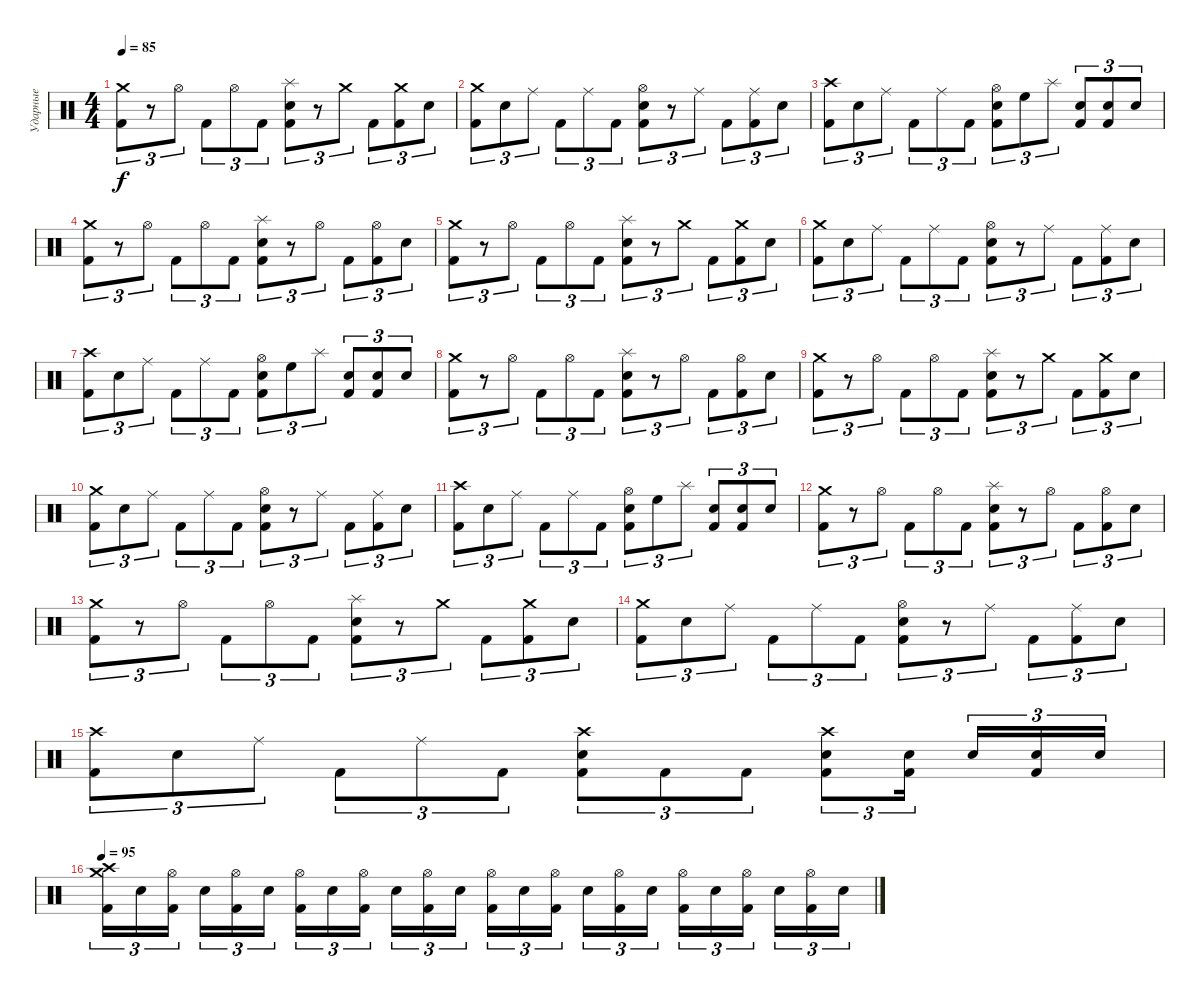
\track ("Ударные" "Ударные") {instrument percussion}
\staff {score}
\articulation defaults
\ts (4 4)
\tempo 85
\clef neutral
\ks c
("Crash medium (hit)" "Kick (hit) 2").8{tu (3 2) dy f} r.8{tu (3 2)} "Hi-Hat (open)".8{tu (3 2)} "Kick (hit) 2".8{tu (3 2)} "Hi-Hat (open)".8{tu (3 2)} "Kick (hit) 2".8{tu (3 2)} ("Splash (hit)" "Electric Snare (hit)" "Kick (hit) 2").8{tu (3 2)} r.8{tu (3 2)} "Crash medium (hit)".8{tu (3 2)} "Kick (hit) 2".8{tu (3 2)} ("Crash medium (hit)" "Kick (hit) 2").8{tu (3 2)} "Electric Snare (hit)".8{tu (3 2)} |
("Crash medium (hit)" "Kick (hit) 2").8{tu (3 2)} "Electric Snare (hit)".8{tu (3 2)} "Ride (middle)".8{tu (3 2)} "Kick (hit) 2".8{tu (3 2)} "Ride (middle)".8{tu (3 2)} "Kick (hit) 2".8{tu (3 2)} ("Hi-Hat (open)" "Electric Snare (hit)" "Kick (hit) 2").8{tu (3 2)} r.8{tu (3 2)} "Ride (middle)".8{tu (3 2)} "Kick (hit) 2".8{tu (3 2)} ("Ride (middle)" "Kick (hit) 2").8{tu (3 2)} "Electric Snare (hit)".8{tu (3 2)} |
("Crash high (hit)" "Kick (hit) 2").8{tu (3 2)} "Electric Snare (hit)".8{tu (3 2)} "Ride (middle)".8{tu (3 2)} "Kick (hit) 2".8{tu (3 2)} "Ride (middle)".8{tu (3 2)} "Kick (hit) 2".8{tu (3 2)} ("Hi-Hat (open)" "Electric Snare (hit)" "Kick (hit) 2").8{tu (3 2)} "High Floor Tom (hit)".8{tu (3 2)} "Splash (hit)".8{tu (3 2)} ("Electric Snare (hit)" "Kick (hit) 2").8{tu (3 2)} ("Electric Snare (hit)" "Kick (hit) 2").8{tu (3 2)} "Electric Snare (hit)".8{tu (3 2)} |
("Crash medium (hit)" "Kick (hit) 2").8{tu (3 2)} r.8{tu (3 2)} "Hi-Hat (open)".8{tu (3 2)} "Kick (hit) 2".8{tu (3 2)} "Hi-Hat (open)".8{tu (3 2)} "Kick (hit) 2".8{tu (3 2)} ("Splash (hit)" "Electric Snare (hit)" "Kick (hit) 2").8{tu (3 2)} r.8{tu (3 2)} "Hi-Hat (open)".8{tu (3 2)} "Kick (hit) 2".8{tu (3 2)} ("Hi-Hat (open)" "Kick (hit) 2").8{tu (3 2)} "Electric Snare (hit)".8{tu (3 2)} |
("Crash medium (hit)" "Kick (hit) 2").8{tu (3 2)} r.8{tu (3 2)} "Hi-Hat (open)".8{tu (3 2)} "Kick (hit) 2".8{tu (3 2)} "Hi-Hat (open)".8{tu (3 2)} "Kick (hit) 2".8{tu (3 2)} ("Splash (hit)" "Electric Snare (hit)" "Kick (hit) 2").8{tu (3 2)} r.8{tu (3 2)} "Crash medium (hit)".8{tu (3 2)} "Kick (hit) 2".8{tu (3 2)} ("Crash medium (hit)" "Kick (hit) 2").8{tu (3 2)} "Electric Snare (hit)".8{tu (3 2)} |
("Crash medium (hit)" "Kick (hit) 2").8{tu (3 2)} "Electric Snare (hit)".8{tu (3 2)} "Ride (middle)".8{tu (3 2)} "Kick (hit) 2".8{tu (3 2)} "Ride (middle)".8{tu (3 2)} "Kick (hit) 2".8{tu (3 2)} ("Hi-Hat (open)" "Electric Snare (hit)" "Kick (hit) 2").8{tu (3 2)} r.8{tu (3 2)} "Ride (middle)".8{tu (3 2)} "Kick (hit) 2".8{tu (3 2)} ("Ride (middle)" "Kick (hit) 2").8{tu (3 2)} "Electric Snare (hit)".8{tu (3 2)} |
("Crash high (hit)" "Kick (hit) 2").8{tu (3 2)} "Electric Snare (hit)".8{tu (3 2)} "Ride (middle)".8{tu (3 2)} "Kick (hit) 2".8{tu (3 2)} "Ride (middle)".8{tu (3 2)} "Kick (hit) 2".8{tu (3 2)} ("Hi-Hat (open)" "Electric Snare (hit)" "Kick (hit) 2").8{tu (3 2)} "High Floor Tom (hit)".8{tu (3 2)} "Splash (hit)".8{tu (3 2)} ("Electric Snare (hit)" "Kick (hit) 2").8{tu (3 2)} ("Electric Snare (hit)" "Kick (hit) 2").8{tu (3 2)} "Electric Snare (hit)".8{tu (3 2)} |
("Crash medium (hit)" "Kick (hit) 2").8{tu (3 2)} r.8{tu (3 2)} "Hi-Hat (open)".8{tu (3 2)} "Kick (hit) 2".8{tu (3 2)} "Hi-Hat (open)".8{tu (3 2)} "Kick (hit) 2".8{tu (3 2)} ("Splash (hit)" "Electric Snare (hit)" "Kick (hit) 2").8{tu (3 2)} r.8{tu (3 2)} "Hi-Hat (open)".8{tu (3 2)} "Kick (hit) 2".8{tu (3 2)} ("Hi-Hat (open)" "Kick (hit) 2").8{tu (3 2)} "Electric Snare (hit)".8{tu (3 2)} |
("Crash medium (hit)" "Kick (hit) 2").8{tu (3 2)} r.8{tu (3 2)} "Hi-Hat (open)".8{tu (3 2)} "Kick (hit) 2".8{tu (3 2)} "Hi-Hat (open)".8{tu (3 2)} "Kick (hit) 2".8{tu (3 2)} ("Splash (hit)" "Electric Snare (hit)" "Kick (hit) 2").8{tu (3 2)} r.8{tu (3 2)} "Crash medium (hit)".8{tu (3 2)} "Kick (hit) 2".8{tu (3 2)} ("Crash medium (hit)" "Kick (hit) 2").8{tu (3 2)} "Electric Snare (hit)".8{tu (3 2)} |
("Crash medium (hit)" "Kick (hit) 2").8{tu (3 2)} "Electric Snare (hit)".8{tu (3 2)} "Ride (middle)".8{tu (3 2)} "Kick (hit) 2".8{tu (3 2)} "Ride (middle)".8{tu (3 2)} "Kick (hit) 2".8{tu (3 2)} ("Hi-Hat (open)" "Electric Snare (hit)" "Kick (hit) 2").8{tu (3 2)} r.8{tu (3 2)} "Ride (middle)".8{tu (3 2)} "Kick (hit) 2".8{tu (3 2)} ("Ride (middle)" "Kick (hit) 2").8{tu (3 2)} "Electric Snare (hit)".8{tu (3 2)} |
("Crash high (hit)" "Kick (hit) 2").8{tu (3 2)} "Electric Snare (hit)".8{tu (3 2)} "Ride (middle)".8{tu (3 2)} "Kick (hit) 2".8{tu (3 2)} "Ride (middle)".8{tu (3 2)} "Kick (hit) 2".8{tu (3 2)} ("Hi-Hat (open)" "Electric Snare (hit)" "Kick (hit) 2").8{tu (3 2)} "High Floor Tom (hit)".8{tu (3 2)} "Splash (hit)".8{tu (3 2)} ("Electric Snare (hit)" "Kick (hit) 2").8{tu (3 2)} ("Electric Snare (hit)" "Kick (hit) 2").8{tu (3 2)} "Electric Snare (hit)".8{tu (3 2)} |
("Crash medium (hit)" "Kick (hit) 2").8{tu (3 2)} r.8{tu (3 2)} "Hi-Hat (open)".8{tu (3 2)} "Kick (hit) 2".8{tu (3 2)} "Hi-Hat (open)".8{tu (3 2)} "Kick (hit) 2".8{tu (3 2)} ("Splash (hit)" "Electric Snare (hit)" "Kick (hit) 2").8{tu (3 2)} r.8{tu (3 2)} "Hi-Hat (open)".8{tu (3 2)} "Kick (hit) 2".8{tu (3 2)} ("Hi-Hat (open)" "Kick (hit) 2").8{tu (3 2)} "Electric Snare (hit)".8{tu (3 2)} |
("Crash medium (hit)" "Kick (hit) 2").8{tu (3 2)} r.8{tu (3 2)} "Hi-Hat (open)".8{tu (3 2)} "Kick (hit) 2".8{tu (3 2)} "Hi-Hat (open)".8{tu (3 2)} "Kick (hit) 2".8{tu (3 2)} ("Splash (hit)" "Electric Snare (hit)" "Kick (hit) 2").8{tu (3 2)} r.8{tu (3 2)} "Crash medium (hit)".8{tu (3 2)} "Kick (hit) 2".8{tu (3 2)} ("Crash medium (hit)" "Kick (hit) 2").8{tu (3 2)} "Electric Snare (hit)".8{tu (3 2)} |
("Crash medium (hit)" "Kick (hit) 2").8{tu (3 2)} "Electric Snare (hit)".8{tu (3 2)} "Ride (middle)".8{tu (3 2)} "Kick (hit) 2".8{tu (3 2)} "Ride (middle)".8{tu (3 2)} "Kick (hit) 2".8{tu (3 2)} ("Hi-Hat (open)" "Electric Snare (hit)" "Kick (hit) 2").8{tu (3 2)} r.8{tu (3 2)} "Ride (middle)".8{tu (3 2)} "Kick (hit) 2".8{tu (3 2)} ("Ride (middle)" "Kick (hit) 2").8{tu (3 2)} "Electric Snare (hit)".8{tu (3 2)} |
("Crash high (hit)" "Kick (hit) 2").8{tu (3 2)} "Electric Snare (hit)".8{tu (3 2)} "Ride (middle)".8{tu (3 2)} "Kick (hit) 2".8{tu (3 2)} "Ride (middle)".8{tu (3 2)} "Kick (hit) 2".8{tu (3 2)} ("Crash high (hit)" "Electric Snare (hit)" "Kick (hit) 2").8{tu (3 2)} "Kick (hit) 2".8{tu (3 2)} "Kick (hit) 2".8{tu (3 2)} ("Crash high (hit)" "Electric Snare (hit)" "Kick (hit) 2").8{tu (3 2)} ("Electric Snare (hit)" "Kick (hit) 2").16{tu (3 2) beam splitsecondary} "Electric Snare (hit)".16{tu (3 2)} ("Electric Snare (hit)" "Kick (hit) 2").16{tu (3 2)} "Electric Snare (hit)".16{tu (3 2)} |
\tempo 95
("Crash medium (hit)" "Crash high (hit)" "Kick (hit) 2").16{tu (3 2)} "Electric Snare (hit)".16{tu (3 2)} ("Hi-Hat (open)" "Kick (hit) 2").16{tu (3 2) beam splitsecondary} "Electric Snare (hit)".16{tu (3 2)} ("Hi-Hat (open)" "Kick (hit) 2").16{tu (3 2)} "Electric Snare (hit)".16{tu (3 2)} ("Hi-Hat (open)" "Kick (hit) 2").16{tu (3 2)} "Electric Snare (hit)".16{tu (3 2)} ("Hi-Hat (open)" "Kick (hit) 2").16{tu (3 2) beam splitsecondary} "Electric Snare (hit)".16{tu (3 2)} ("Hi-Hat (open)" "Kick (hit) 2").16{tu (3 2)} "Electric Snare (hit)".16{tu (3 2)} ("Hi-Hat (open)" "Kick (hit) 2").16{tu (3 2)} "Electric Snare (hit)".16{tu (3 2)} ("Hi-Hat (open)" "Kick (hit) 2").16{tu (3 2) beam splitsecondary} "Electric Snare (hit)".16{tu (3 2)} ("Hi-Hat (open)" "Kick (hit) 2").16{tu (3 2)} "Electric Snare (hit)".16{tu (3 2)} ("Hi-Hat (open)" "Kick (hit) 2").16{tu (3 2)} "Electric Snare (hit)".16{tu (3 2)} ("Hi-Hat (open)" "Kick (hit) 2").16{tu (3 2) beam splitsecondary} "Electric Snare (hit)".16{tu (3 2)} ("Hi-Hat (open)" "Kick (hit) 2").16{tu (3 2)} "Electric Snare (hit)".16{tu (3 2)}
